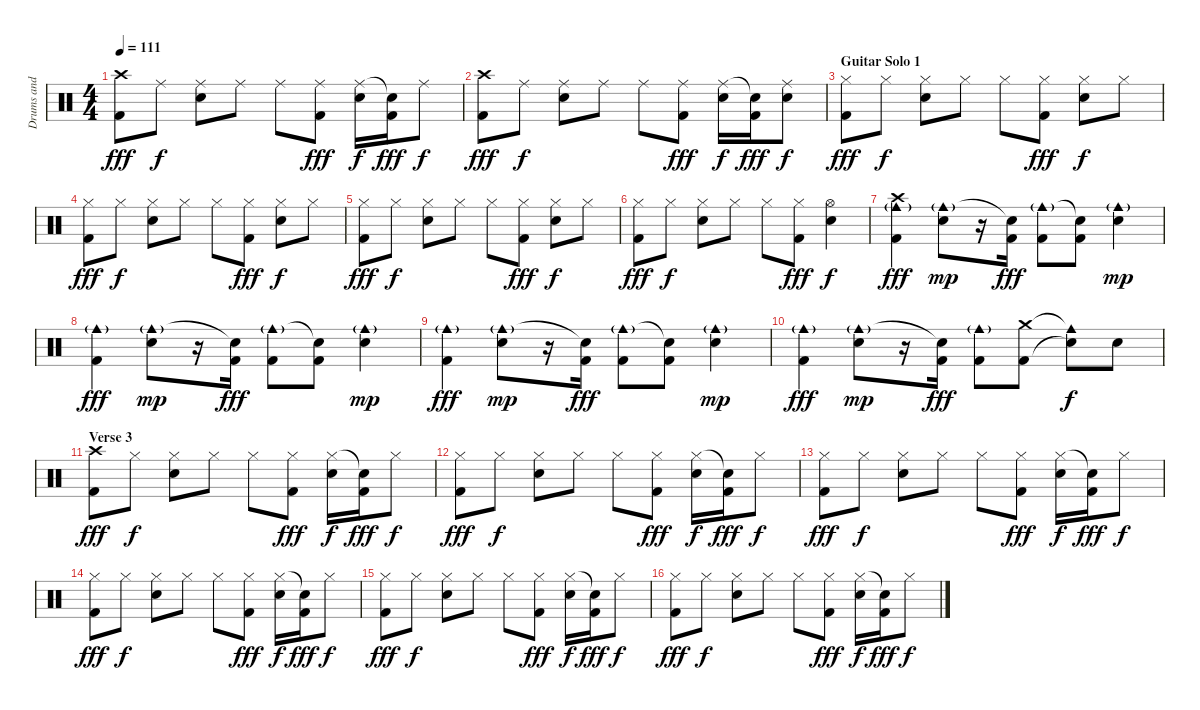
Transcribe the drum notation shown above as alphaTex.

\track ("Drums and Percussion" "Drums and ") {instrument percussion}
\staff {score}
\articulation defaults
\ts (4 4)
\tempo 111
\clef neutral
\ks c
("Crash high (hit)" "Kick (hit) 2").8{dy fff} "Ride (middle)".8{dy f} ("Ride (middle)" "Snare (hit) 2").8 "Ride (middle)".8 "Ride (middle)".8 ("Ride (middle)" "Kick (hit) 2").8{dy fff} ("Ride (middle)" "Snare (hit) 2").16{dy f} ("Snare (hit)"{t} "Kick (hit) 2").16{dy fff} "Ride (middle)".8{dy f} |
("Crash high (hit)" "Kick (hit) 2").8{dy fff} "Ride (middle)".8{dy f} ("Ride (middle)" "Snare (hit) 2").8 "Ride (middle)".8 "Ride (middle)".8 ("Ride (middle)" "Kick (hit) 2").8{dy fff} ("Ride (middle)" "Snare (hit) 2").16{dy f} ("Snare (hit)"{t} "Kick (hit) 2").16{dy fff} ("Ride (middle)" "Snare (hit) 2").8{dy f} |
\section ("" "Guitar Solo 1")
("Hi-Hat (closed)" "Kick (hit) 2").8{dy fff} "Hi-Hat (closed)".8{dy f} ("Hi-Hat (closed)" "Snare (hit) 2").8 "Hi-Hat (closed)".8 "Hi-Hat (closed)".8 ("Hi-Hat (closed)" "Kick (hit) 2").8{dy fff} ("Hi-Hat (closed)" "Snare (hit) 2").8{dy f} "Hi-Hat (closed)".8 |
("Hi-Hat (closed)" "Kick (hit) 2").8{dy fff} "Hi-Hat (closed)".8{dy f} ("Hi-Hat (closed)" "Snare (hit) 2").8 "Hi-Hat (closed)".8 "Hi-Hat (closed)".8 ("Hi-Hat (closed)" "Kick (hit) 2").8{dy fff} ("Hi-Hat (closed)" "Snare (hit) 2").8{dy f} "Hi-Hat (closed)".8 |
("Hi-Hat (closed)" "Kick (hit) 2").8{dy fff} "Hi-Hat (closed)".8{dy f} ("Hi-Hat (closed)" "Snare (hit) 2").8 "Hi-Hat (closed)".8 "Hi-Hat (closed)".8 ("Hi-Hat (closed)" "Kick (hit) 2").8{dy fff} ("Hi-Hat (closed)" "Snare (hit) 2").8{dy f} "Hi-Hat (closed)".8 |
("Hi-Hat (closed)" "Kick (hit) 2").8{dy fff} "Hi-Hat (closed)".8{dy f} ("Hi-Hat (closed)" "Snare (hit) 2").8 "Hi-Hat (closed)".8 "Hi-Hat (closed)".8 ("Hi-Hat (closed)" "Kick (hit) 2").8{dy fff} ("Hi-Hat (open)" "Snare (hit) 2").4{dy f} |
("Crash high (hit)" "Cowbell medium (hit)"{g} "Kick (hit) 2").4{dy fff} ("Cowbell medium (hit)"{g} "Snare (hit) 2").8{dy mp} r.16 ("Snare (hit)"{t} "Kick (hit) 2").16{dy fff} ("Cowbell medium (hit)"{g} "Kick (hit) 2").8 ("Snare (hit)"{t} "Kick (hit) 2").8 ("Cowbell medium (hit)"{g} "Snare (hit) 2").4{dy mp} |
("Cowbell medium (hit)"{g} "Kick (hit) 2").4{dy fff} ("Cowbell medium (hit)"{g} "Snare (hit) 2").8{dy mp} r.16 ("Snare (hit)"{t} "Kick (hit) 2").16{dy fff} ("Cowbell medium (hit)"{g} "Kick (hit) 2").8 ("Snare (hit)"{t} "Kick (hit) 2").8 ("Cowbell medium (hit)"{g} "Snare (hit) 2").4{dy mp} |
("Cowbell medium (hit)"{g} "Kick (hit) 2").4{dy fff} ("Cowbell medium (hit)"{g} "Snare (hit) 2").8{dy mp} r.16 ("Snare (hit)"{t} "Kick (hit) 2").16{dy fff} ("Cowbell medium (hit)"{g} "Kick (hit) 2").8 ("Snare (hit)"{t} "Kick (hit) 2").8 ("Cowbell medium (hit)"{g} "Snare (hit) 2").4{dy mp} |
("Cowbell medium (hit)"{g} "Kick (hit) 2").4{dy fff} ("Cowbell medium (hit)"{g} "Snare (hit) 2").8{dy mp} r.16 ("Snare (hit)"{t} "Kick (hit) 2").16{dy fff} ("Cowbell medium (hit)"{g} "Kick (hit) 2").8 ("Crash medium (hit)" "Kick (hit) 2").8 ("Cowbell medium (hit)"{t} "Snare (hit)"{t}).8{dy f} "Snare (hit) 2".8 |
\section ("" "Verse 3")
("Crash high (hit)" "Kick (hit) 2").8{dy fff} "Hi-Hat (closed)".8{dy f} ("Hi-Hat (closed)" "Snare (hit) 2").8 "Hi-Hat (closed)".8 "Hi-Hat (closed)".8 ("Hi-Hat (closed)" "Kick (hit) 2").8{dy fff} ("Hi-Hat (closed)" "Snare (hit) 2").16{dy f} ("Snare (hit)"{t} "Kick (hit) 2").16{dy fff} "Hi-Hat (closed)".8{dy f} |
("Hi-Hat (closed)" "Kick (hit) 2").8{dy fff} "Hi-Hat (closed)".8{dy f} ("Hi-Hat (closed)" "Snare (hit) 2").8 "Hi-Hat (closed)".8 "Hi-Hat (closed)".8 ("Hi-Hat (closed)" "Kick (hit) 2").8{dy fff} ("Hi-Hat (closed)" "Snare (hit) 2").16{dy f} ("Snare (hit)"{t} "Kick (hit) 2").16{dy fff} "Hi-Hat (closed)".8{dy f} |
("Hi-Hat (closed)" "Kick (hit) 2").8{dy fff} "Hi-Hat (closed)".8{dy f} ("Hi-Hat (closed)" "Snare (hit) 2").8 "Hi-Hat (closed)".8 "Hi-Hat (closed)".8 ("Hi-Hat (closed)" "Kick (hit) 2").8{dy fff} ("Hi-Hat (closed)" "Snare (hit) 2").16{dy f} ("Snare (hit)"{t} "Kick (hit) 2").16{dy fff} "Hi-Hat (closed)".8{dy f} |
("Hi-Hat (closed)" "Kick (hit) 2").8{dy fff} "Hi-Hat (closed)".8{dy f} ("Hi-Hat (closed)" "Snare (hit) 2").8 "Hi-Hat (closed)".8 "Hi-Hat (closed)".8 ("Hi-Hat (closed)" "Kick (hit) 2").8{dy fff} ("Hi-Hat (closed)" "Snare (hit) 2").16{dy f} ("Snare (hit)"{t} "Kick (hit) 2").16{dy fff} "Hi-Hat (closed)".8{dy f} |
("Hi-Hat (closed)" "Kick (hit) 2").8{dy fff} "Hi-Hat (closed)".8{dy f} ("Hi-Hat (closed)" "Snare (hit) 2").8 "Hi-Hat (closed)".8 "Hi-Hat (closed)".8 ("Hi-Hat (closed)" "Kick (hit) 2").8{dy fff} ("Hi-Hat (closed)" "Snare (hit) 2").16{dy f} ("Snare (hit)"{t} "Kick (hit) 2").16{dy fff} "Hi-Hat (closed)".8{dy f} |
("Hi-Hat (closed)" "Kick (hit) 2").8{dy fff} "Hi-Hat (closed)".8{dy f} ("Hi-Hat (closed)" "Snare (hit) 2").8 "Hi-Hat (closed)".8 "Hi-Hat (closed)".8 ("Hi-Hat (closed)" "Kick (hit) 2").8{dy fff} ("Hi-Hat (closed)" "Snare (hit) 2").16{dy f} ("Snare (hit)"{t} "Kick (hit) 2").16{dy fff} "Hi-Hat (closed)".8{dy f}
